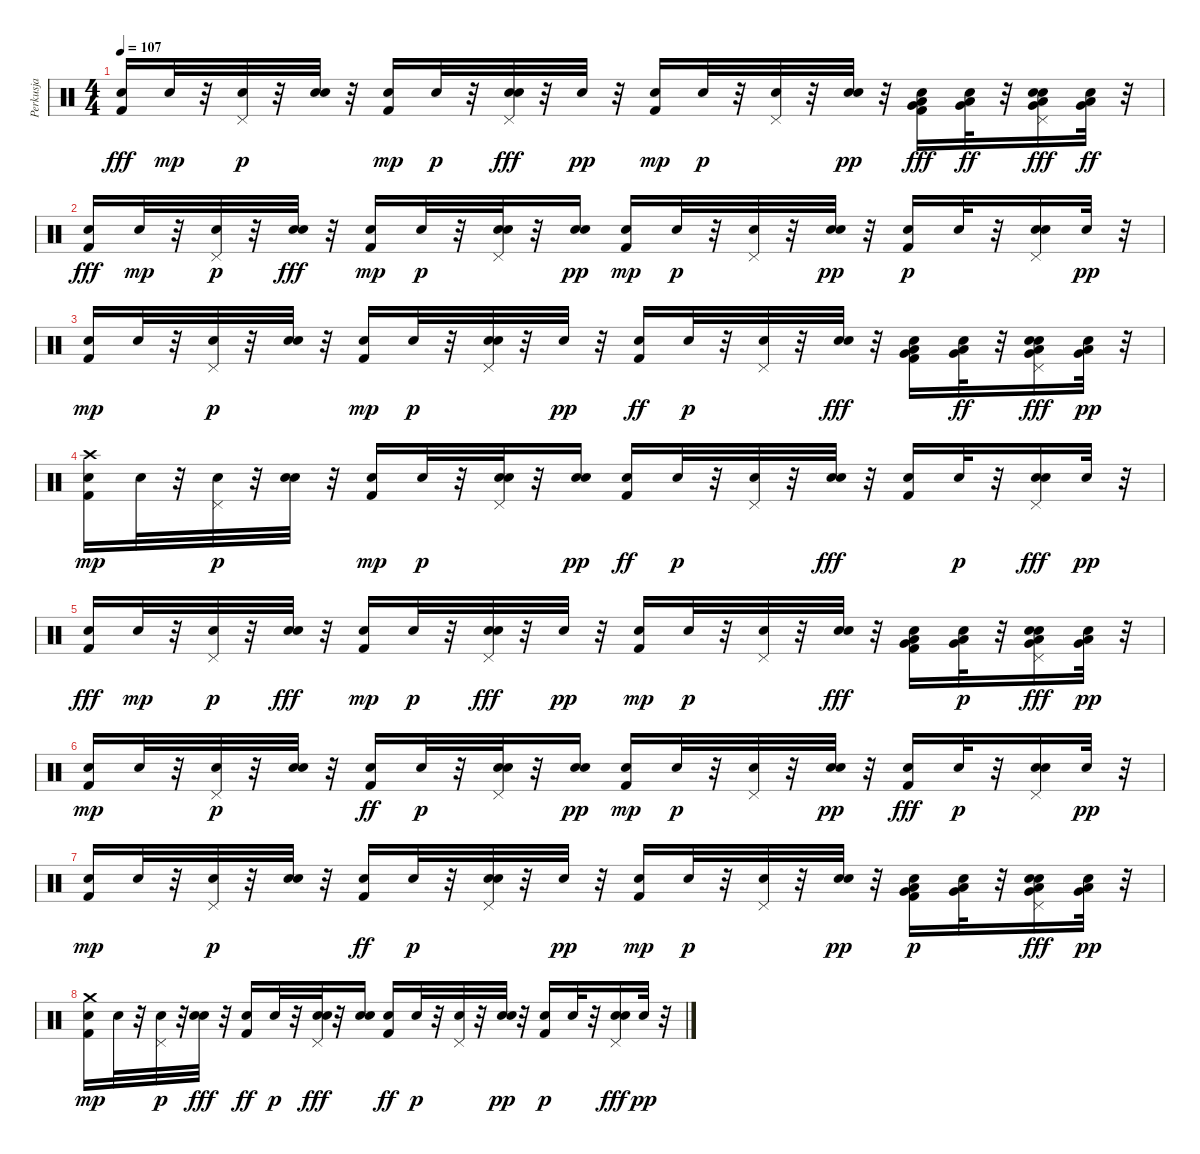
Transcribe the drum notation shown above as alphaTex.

\track ("Perkusja" "Perkusja") {instrument percussion}
\staff {score}
\articulation defaults
\ts (4 4)
\tempo 107
\clef neutral
\ks c
("Snare (hit) 2" "Kick (hit) 2").16{dy fff} "Snare (hit) 2".32{dy mp} r.32 ("Pedal Hi-Hat (hit)" "Snare (hit) 2").32{dy p} r.32 ("Electric Snare (hit)" "Snare (hit) 2").32 r.32 ("Kick (hit) 2" "Snare (hit) 2").16{dy mp} "Snare (hit) 2".32{dy p} r.32 ("Snare (hit) 2" "Pedal Hi-Hat (hit)" "Electric Snare (hit)").32{dy fff} r.32 "Snare (hit) 2".32{dy pp} r.32 ("Kick (hit) 2" "Snare (hit) 2").16{dy mp} "Snare (hit) 2".32{dy p} r.32 ("Snare (hit) 2" "Pedal Hi-Hat (hit)").32 r.32 ("Electric Snare (hit)" "Snare (hit) 2").32{dy pp} r.32 ("Very Low Tom (hit)" "Low Floor Tom (hit)" "Snare (hit) 2" "Kick (hit) 2").16{dy fff} ("Low Floor Tom (hit)" "Snare (hit) 2" "Very Low Tom (hit)").32{dy ff} r.32 ("Very Low Tom (hit)" "Electric Snare (hit)" "Snare (hit) 2" "Pedal Hi-Hat (hit)" "Low Floor Tom (hit)").16{dy fff} ("Low Floor Tom (hit)" "Snare (hit) 2" "Very Low Tom (hit)").32{dy ff} r.32 |
("Snare (hit) 2" "Kick (hit) 2").16{dy fff} "Snare (hit) 2".32{dy mp} r.32 ("Pedal Hi-Hat (hit)" "Snare (hit) 2").32{dy p} r.32 ("Snare (hit) 2" "Electric Snare (hit)").32{dy fff} r.32 ("Kick (hit) 2" "Snare (hit) 2").16{dy mp} "Snare (hit) 2".32{dy p} r.32 ("Pedal Hi-Hat (hit)" "Electric Snare (hit)" "Snare (hit) 2").32 r.32 ("Electric Snare (hit)" "Snare (hit) 2").16{dy pp} ("Kick (hit) 2" "Snare (hit) 2").16{dy mp} "Snare (hit) 2".32{dy p} r.32 ("Snare (hit) 2" "Pedal Hi-Hat (hit)").32 r.32 ("Electric Snare (hit)" "Snare (hit) 2").32{dy pp} r.32 ("Kick (hit) 2" "Snare (hit) 2").16{dy p} "Snare (hit) 2".32 r.32 ("Electric Snare (hit)" "Pedal Hi-Hat (hit)" "Snare (hit) 2").16 "Snare (hit) 2".32{dy pp} r.32 |
("Kick (hit) 2" "Snare (hit) 2").16{dy mp} "Snare (hit) 2".32 r.32 ("Pedal Hi-Hat (hit)" "Snare (hit) 2").32{dy p} r.32 ("Electric Snare (hit)" "Snare (hit) 2").32 r.32 ("Kick (hit) 2" "Snare (hit) 2").16{dy mp} "Snare (hit) 2".32{dy p} r.32 ("Electric Snare (hit)" "Snare (hit) 2" "Pedal Hi-Hat (hit)").32 r.32 "Snare (hit) 2".32{dy pp} r.32 ("Snare (hit) 2" "Kick (hit) 2").16{dy ff} "Snare (hit) 2".32{dy p} r.32 ("Pedal Hi-Hat (hit)" "Snare (hit) 2").32 r.32 ("Snare (hit) 2" "Electric Snare (hit)").32{dy fff} r.32 ("Snare (hit) 2" "Very Low Tom (hit)" "Kick (hit) 2" "Low Floor Tom (hit)").16 ("Very Low Tom (hit)" "Snare (hit) 2" "Low Floor Tom (hit)").32{dy ff} r.32 ("Pedal Hi-Hat (hit)" "Very Low Tom (hit)" "Low Floor Tom (hit)" "Snare (hit) 2" "Electric Snare (hit)").16{dy fff} ("Low Floor Tom (hit)" "Very Low Tom (hit)" "Snare (hit) 2").32{dy pp} r.32 |
("Crash high (hit)" "Kick (hit) 2" "Snare (hit) 2").16{dy mp} "Snare (hit) 2".32 r.32 ("Pedal Hi-Hat (hit)" "Snare (hit) 2").32{dy p} r.32 ("Electric Snare (hit)" "Snare (hit) 2").32 r.32 ("Kick (hit) 2" "Snare (hit) 2").16{dy mp} "Snare (hit) 2".32{dy p} r.32 ("Pedal Hi-Hat (hit)" "Electric Snare (hit)" "Snare (hit) 2").32 r.32 ("Electric Snare (hit)" "Snare (hit) 2").16{dy pp} ("Snare (hit) 2" "Kick (hit) 2").16{dy ff} "Snare (hit) 2".32{dy p} r.32 ("Pedal Hi-Hat (hit)" "Snare (hit) 2").32 r.32 ("Snare (hit) 2" "Electric Snare (hit)").32{dy fff} r.32 ("Snare (hit) 2" "Kick (hit) 2").16 "Snare (hit) 2".32{dy p} r.32 ("Snare (hit) 2" "Electric Snare (hit)" "Pedal Hi-Hat (hit)").16{dy fff} "Snare (hit) 2".32{dy pp} r.32 |
("Snare (hit) 2" "Kick (hit) 2").16{dy fff} "Snare (hit) 2".32{dy mp} r.32 ("Snare (hit) 2" "Pedal Hi-Hat (hit)").32{dy p} r.32 ("Snare (hit) 2" "Electric Snare (hit)").32{dy fff} r.32 ("Kick (hit) 2" "Snare (hit) 2").16{dy mp} "Snare (hit) 2".32{dy p} r.32 ("Snare (hit) 2" "Pedal Hi-Hat (hit)" "Electric Snare (hit)").32{dy fff} r.32 "Snare (hit) 2".32{dy pp} r.32 ("Kick (hit) 2" "Snare (hit) 2").16{dy mp} "Snare (hit) 2".32{dy p} r.32 ("Pedal Hi-Hat (hit)" "Snare (hit) 2").32 r.32 ("Snare (hit) 2" "Electric Snare (hit)").32{dy fff} r.32 ("Very Low Tom (hit)" "Snare (hit) 2" "Low Floor Tom (hit)" "Kick (hit) 2").16 ("Very Low Tom (hit)" "Low Floor Tom (hit)" "Snare (hit) 2").32{dy p} r.32 ("Snare (hit) 2" "Low Floor Tom (hit)" "Electric Snare (hit)" "Very Low Tom (hit)" "Pedal Hi-Hat (hit)").16{dy fff} ("Very Low Tom (hit)" "Low Floor Tom (hit)" "Snare (hit) 2").32{dy pp} r.32 |
("Kick (hit) 2" "Snare (hit) 2").16{dy mp} "Snare (hit) 2".32 r.32 ("Pedal Hi-Hat (hit)" "Snare (hit) 2").32{dy p} r.32 ("Electric Snare (hit)" "Snare (hit) 2").32 r.32 ("Snare (hit) 2" "Kick (hit) 2").16{dy ff} "Snare (hit) 2".32{dy p} r.32 ("Electric Snare (hit)" "Pedal Hi-Hat (hit)" "Snare (hit) 2").32 r.32 ("Electric Snare (hit)" "Snare (hit) 2").16{dy pp} ("Kick (hit) 2" "Snare (hit) 2").16{dy mp} "Snare (hit) 2".32{dy p} r.32 ("Pedal Hi-Hat (hit)" "Snare (hit) 2").32 r.32 ("Electric Snare (hit)" "Snare (hit) 2").32{dy pp} r.32 ("Snare (hit) 2" "Kick (hit) 2").16{dy fff} "Snare (hit) 2".32{dy p} r.32 ("Electric Snare (hit)" "Snare (hit) 2" "Pedal Hi-Hat (hit)").16 "Snare (hit) 2".32{dy pp} r.32 |
("Kick (hit) 2" "Snare (hit) 2").16{dy mp} "Snare (hit) 2".32 r.32 ("Pedal Hi-Hat (hit)" "Snare (hit) 2").32{dy p} r.32 ("Electric Snare (hit)" "Snare (hit) 2").32 r.32 ("Snare (hit) 2" "Kick (hit) 2").16{dy ff} "Snare (hit) 2".32{dy p} r.32 ("Pedal Hi-Hat (hit)" "Electric Snare (hit)" "Snare (hit) 2").32 r.32 "Snare (hit) 2".32{dy pp} r.32 ("Kick (hit) 2" "Snare (hit) 2").16{dy mp} "Snare (hit) 2".32{dy p} r.32 ("Snare (hit) 2" "Pedal Hi-Hat (hit)").32 r.32 ("Electric Snare (hit)" "Snare (hit) 2").32{dy pp} r.32 ("Very Low Tom (hit)" "Kick (hit) 2" "Low Floor Tom (hit)" "Snare (hit) 2").16{dy p} ("Very Low Tom (hit)" "Low Floor Tom (hit)" "Snare (hit) 2").32 r.32 ("Snare (hit) 2" "Pedal Hi-Hat (hit)" "Low Floor Tom (hit)" "Very Low Tom (hit)" "Electric Snare (hit)").16{dy fff} ("Very Low Tom (hit)" "Low Floor Tom (hit)" "Snare (hit) 2").32{dy pp} r.32 |
("Kick (hit) 2" "Crash medium (hit)" "Snare (hit) 2").16{dy mp} "Snare (hit) 2".32 r.32 ("Pedal Hi-Hat (hit)" "Snare (hit) 2").32{dy p} r.32 ("Snare (hit) 2" "Electric Snare (hit)").32{dy fff} r.32 ("Snare (hit) 2" "Kick (hit) 2").16{dy ff} "Snare (hit) 2".32{dy p} r.32 ("Pedal Hi-Hat (hit)" "Snare (hit) 2" "Electric Snare (hit)").32{dy fff} r.32 ("Snare (hit) 2" "Electric Snare (hit)").16 ("Snare (hit) 2" "Kick (hit) 2").16{dy ff} "Snare (hit) 2".32{dy p} r.32 ("Pedal Hi-Hat (hit)" "Snare (hit) 2").32 r.32 ("Electric Snare (hit)" "Snare (hit) 2").32{dy pp} r.32 ("Kick (hit) 2" "Snare (hit) 2").16{dy p} "Snare (hit) 2".32 r.32 ("Snare (hit) 2" "Pedal Hi-Hat (hit)" "Electric Snare (hit)").16{dy fff} "Snare (hit) 2".32{dy pp} r.32
